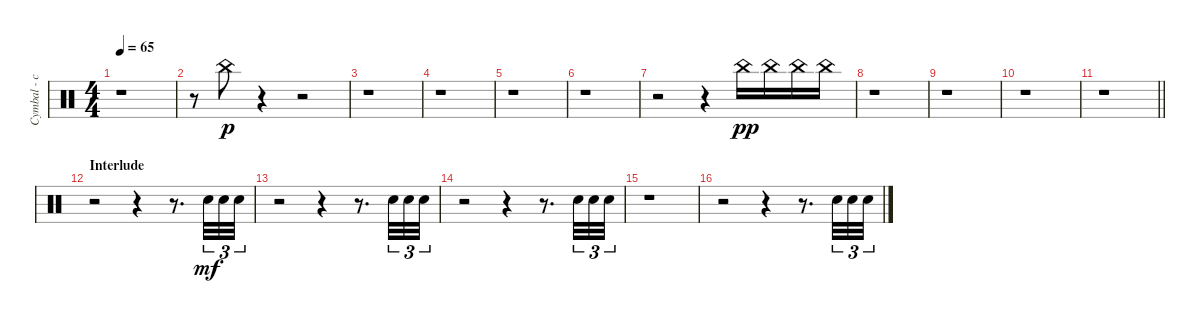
\track ("Cymbal - china" "Cymbal - c") {instrument percussion}
\staff {score}
\articulation defaults
\ts (4 4)
\tempo 65
\clef neutral
\ks c
r.1{dy p} |
r.8 "China (hit)".8 r.4 r.2 |
r.1 |
r.1 |
r.1 |
r.1 |
r.2 r.4 "China (hit)".16{dy pp} "China (hit)".16 "China (hit)".16 "China (hit)".16 |
r.1 |
r.1 |
r.1 |
\barLineRight lightlight
r.1 |
\section ("" "Interlude")
r.2 r.4{volume 3 balance 8} r.8{d} "Snare (hit) 2".32{tu (3 2) dy mf} "Snare (hit) 2".32{tu (3 2)} "Snare (hit) 2".32{tu (3 2)} |
r.2 r.4 r.8{d} "Snare (hit) 2".32{tu (3 2)} "Snare (hit) 2".32{tu (3 2)} "Snare (hit) 2".32{tu (3 2)} |
r.2 r.4 r.8{d} "Snare (hit) 2".32{tu (3 2)} "Snare (hit) 2".32{tu (3 2)} "Snare (hit) 2".32{tu (3 2)} |
r.1 |
r.2 r.4{volume 3 balance 8} r.8{d} "Snare (hit) 2".32{tu (3 2)} "Snare (hit) 2".32{tu (3 2)} "Snare (hit) 2".32{tu (3 2)}
